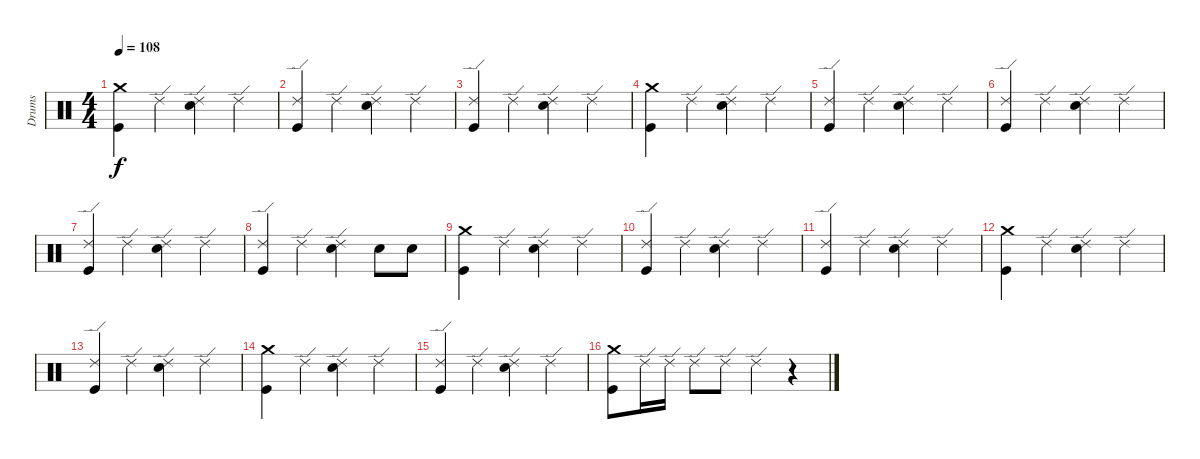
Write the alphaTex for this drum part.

\track ("Drums" "Drums") {instrument percussion}
\staff {score}
\articulation defaults
\ts (4 4)
\tempo 108
\clef neutral
\ks c
("Crash medium (hit)" "Kick (hit)").4{dy f} "Ride (edge) 2".4 ("Ride (edge) 2" "Snare (hit) 2").4 "Ride (edge) 2".4 |
("Ride (edge) 2" "Kick (hit)").4 "Ride (edge) 2".4 ("Ride (edge) 2" "Snare (hit) 2").4 "Ride (edge) 2".4 |
("Ride (edge) 2" "Kick (hit)").4 "Ride (edge) 2".4 ("Ride (edge) 2" "Snare (hit) 2").4 "Ride (edge) 2".4 |
("Crash medium (hit)" "Kick (hit)").4 "Ride (edge) 2".4 ("Ride (edge) 2" "Snare (hit) 2").4 "Ride (edge) 2".4 |
("Ride (edge) 2" "Kick (hit)").4 "Ride (edge) 2".4 ("Ride (edge) 2" "Snare (hit) 2").4 "Ride (edge) 2".4 |
("Ride (edge) 2" "Kick (hit)").4 "Ride (edge) 2".4 ("Ride (edge) 2" "Snare (hit) 2").4 "Ride (edge) 2".4 |
("Ride (edge) 2" "Kick (hit)").4 "Ride (edge) 2".4 ("Ride (edge) 2" "Snare (hit) 2").4 "Ride (edge) 2".4 |
("Ride (edge) 2" "Kick (hit)").4 "Ride (edge) 2".4 ("Snare (hit) 2" "Ride (edge) 2").4 "Snare (hit) 2".8 "Snare (hit) 2".8 |
("Crash medium (hit)" "Kick (hit)").4 "Ride (edge) 2".4 ("Ride (edge) 2" "Snare (hit) 2").4 "Ride (edge) 2".4 |
("Kick (hit)" "Ride (edge) 2").4 "Ride (edge) 2".4 ("Snare (hit) 2" "Ride (edge) 2").4 "Ride (edge) 2".4 |
("Kick (hit)" "Ride (edge) 2").4 "Ride (edge) 2".4 ("Snare (hit) 2" "Ride (edge) 2").4 "Ride (edge) 2".4 |
("Kick (hit)" "Crash medium (hit)").4 "Ride (edge) 2".4 ("Snare (hit) 2" "Ride (edge) 2").4 "Ride (edge) 2".4 |
("Kick (hit)" "Ride (edge) 2").4 "Ride (edge) 2".4 ("Snare (hit) 2" "Ride (edge) 2").4 "Ride (edge) 2".4 |
("Kick (hit)" "Crash medium (hit)").4 "Ride (edge) 2".4 ("Snare (hit) 2" "Ride (edge) 2").4 "Ride (edge) 2".4 |
("Kick (hit)" "Ride (edge) 2").4 "Ride (edge) 2".4 ("Snare (hit) 2" "Ride (edge) 2").4 "Ride (edge) 2".4 |
("Crash medium (hit)" "Kick (hit)").8 "Ride (edge) 2".16 "Ride (edge) 2".16 "Ride (edge) 2".8 "Ride (edge) 2".8 "Ride (edge) 2".4 r.4
